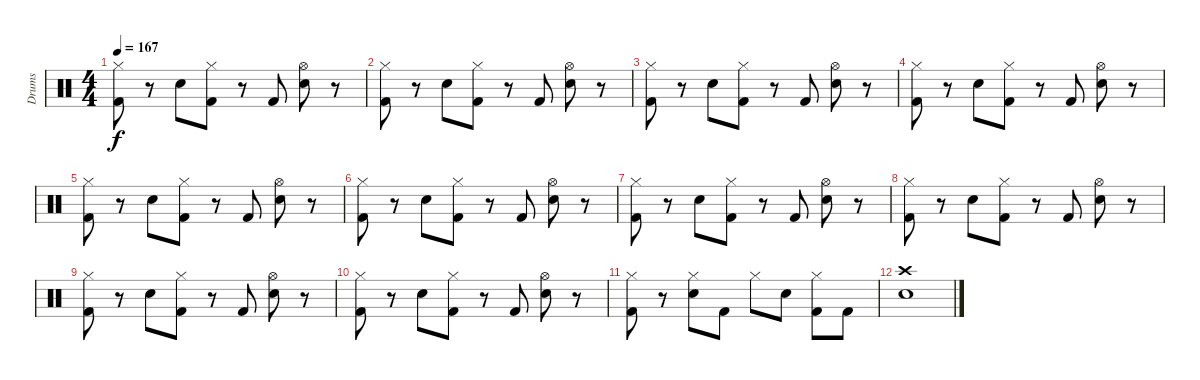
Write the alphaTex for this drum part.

\track ("Drums" "Drums") {instrument percussion}
\staff {score}
\articulation defaults
\ts (4 4)
\tempo 167
\clef neutral
\ks c
("Hi-Hat (closed)" "Kick (hit) 2").8{dy f} r.8 "Snare (hit) 2".8 ("Hi-Hat (closed)" "Kick (hit) 2").8 r.8 "Kick (hit) 2".8 ("Hi-Hat (open)" "Snare (hit) 2").8 r.8 |
("Hi-Hat (closed)" "Kick (hit) 2").8 r.8 "Snare (hit) 2".8 ("Hi-Hat (closed)" "Kick (hit) 2").8 r.8 "Kick (hit) 2".8 ("Hi-Hat (open)" "Snare (hit) 2").8 r.8 |
("Hi-Hat (closed)" "Kick (hit) 2").8 r.8 "Snare (hit) 2".8 ("Hi-Hat (closed)" "Kick (hit) 2").8 r.8 "Kick (hit) 2".8 ("Hi-Hat (open)" "Snare (hit) 2").8 r.8 |
("Hi-Hat (closed)" "Kick (hit) 2").8 r.8 "Snare (hit) 2".8 ("Hi-Hat (closed)" "Kick (hit) 2").8 r.8 "Kick (hit) 2".8 ("Hi-Hat (open)" "Snare (hit) 2").8 r.8 |
("Hi-Hat (closed)" "Kick (hit) 2").8 r.8 "Snare (hit) 2".8 ("Hi-Hat (closed)" "Kick (hit) 2").8 r.8 "Kick (hit) 2".8 ("Hi-Hat (open)" "Snare (hit) 2").8 r.8 |
("Hi-Hat (closed)" "Kick (hit) 2").8 r.8 "Snare (hit) 2".8 ("Hi-Hat (closed)" "Kick (hit) 2").8 r.8 "Kick (hit) 2".8 ("Hi-Hat (open)" "Snare (hit) 2").8 r.8 |
("Hi-Hat (closed)" "Kick (hit) 2").8 r.8 "Snare (hit) 2".8 ("Hi-Hat (closed)" "Kick (hit) 2").8 r.8 "Kick (hit) 2".8 ("Hi-Hat (open)" "Snare (hit) 2").8 r.8 |
("Hi-Hat (closed)" "Kick (hit) 2").8 r.8 "Snare (hit) 2".8 ("Hi-Hat (closed)" "Kick (hit) 2").8 r.8 "Kick (hit) 2".8 ("Hi-Hat (open)" "Snare (hit) 2").8 r.8 |
("Hi-Hat (closed)" "Kick (hit) 2").8 r.8 "Snare (hit) 2".8 ("Hi-Hat (closed)" "Kick (hit) 2").8 r.8 "Kick (hit) 2".8 ("Hi-Hat (open)" "Snare (hit) 2").8 r.8 |
("Hi-Hat (closed)" "Kick (hit) 2").8 r.8 "Snare (hit) 2".8 ("Hi-Hat (closed)" "Kick (hit) 2").8 r.8 "Kick (hit) 2".8 ("Hi-Hat (open)" "Snare (hit) 2").8 r.8 |
("Hi-Hat (closed)" "Kick (hit) 2").8 r.8 ("Hi-Hat (closed)" "Snare (hit) 2").8 "Kick (hit) 2".8 "Hi-Hat (closed)".8 "Snare (hit) 2".8 ("Hi-Hat (closed)" "Kick (hit) 2").8 "Kick (hit) 2".8 |
("Crash high (hit)" "Snare (hit) 2").1
